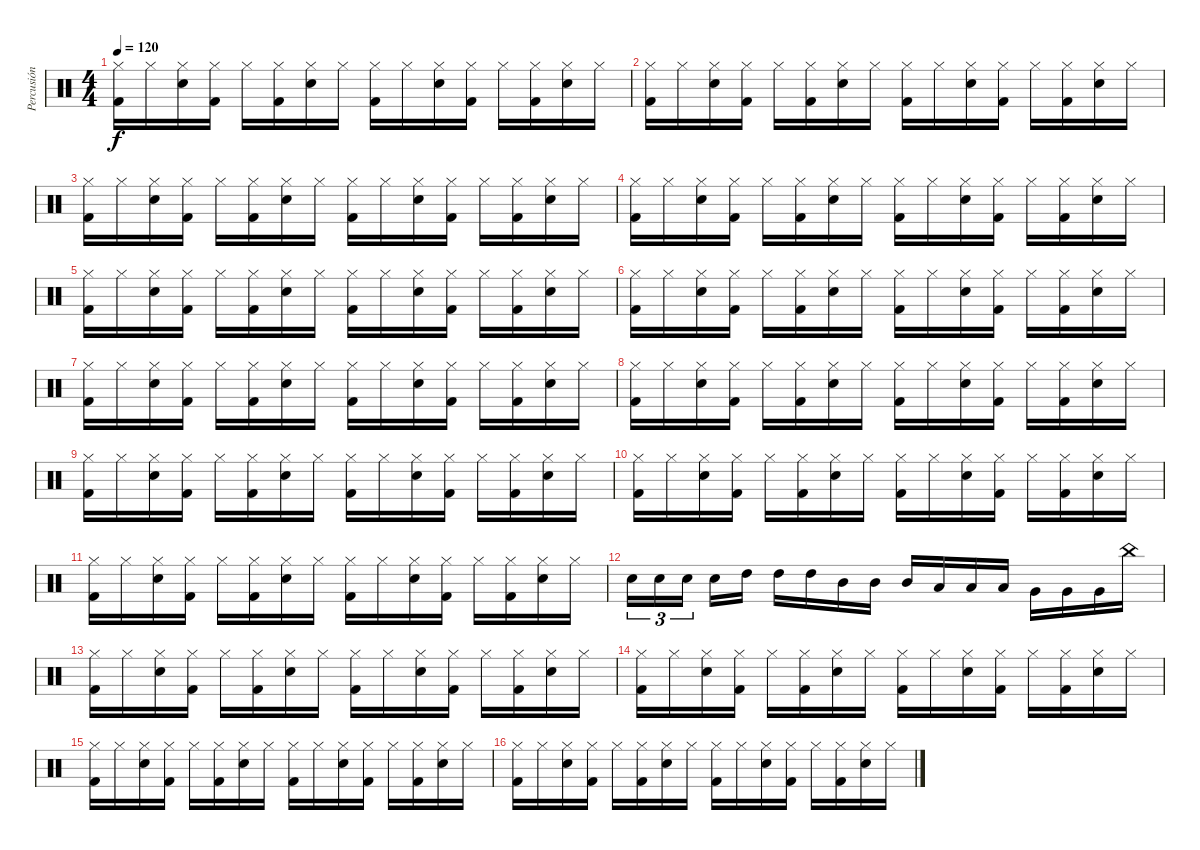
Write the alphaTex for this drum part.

\track ("Percusión" "Percusión") {instrument percussion}
\staff {score}
\articulation defaults
\ts (4 4)
\tempo 120
\clef neutral
\ks c
("Kick (hit) 2" "Hi-Hat (closed)").16{dy f} "Hi-Hat (closed)".16 ("Snare (hit) 2" "Hi-Hat (closed)").16 ("Kick (hit) 2" "Hi-Hat (closed)").16 "Hi-Hat (closed)".16 ("Kick (hit) 2" "Hi-Hat (closed)").16 ("Snare (hit) 2" "Hi-Hat (closed)").16 "Hi-Hat (closed)".16 ("Kick (hit) 2" "Hi-Hat (closed)").16 "Hi-Hat (closed)".16 ("Snare (hit) 2" "Hi-Hat (closed)").16 ("Kick (hit) 2" "Hi-Hat (closed)").16 "Hi-Hat (closed)".16 ("Kick (hit) 2" "Hi-Hat (closed)").16 ("Snare (hit) 2" "Hi-Hat (closed)").16 "Hi-Hat (closed)".16 |
("Kick (hit) 2" "Hi-Hat (closed)").16 "Hi-Hat (closed)".16 ("Snare (hit) 2" "Hi-Hat (closed)").16 ("Kick (hit) 2" "Hi-Hat (closed)").16 "Hi-Hat (closed)".16 ("Kick (hit) 2" "Hi-Hat (closed)").16 ("Snare (hit) 2" "Hi-Hat (closed)").16 "Hi-Hat (closed)".16 ("Kick (hit) 2" "Hi-Hat (closed)").16 "Hi-Hat (closed)".16 ("Snare (hit) 2" "Hi-Hat (closed)").16 ("Kick (hit) 2" "Hi-Hat (closed)").16 "Hi-Hat (closed)".16 ("Kick (hit) 2" "Hi-Hat (closed)").16 ("Snare (hit) 2" "Hi-Hat (closed)").16 "Hi-Hat (closed)".16 |
("Kick (hit) 2" "Hi-Hat (closed)").16 "Hi-Hat (closed)".16 ("Snare (hit) 2" "Hi-Hat (closed)").16 ("Kick (hit) 2" "Hi-Hat (closed)").16 "Hi-Hat (closed)".16 ("Kick (hit) 2" "Hi-Hat (closed)").16 ("Snare (hit) 2" "Hi-Hat (closed)").16 "Hi-Hat (closed)".16 ("Kick (hit) 2" "Hi-Hat (closed)").16 "Hi-Hat (closed)".16 ("Snare (hit) 2" "Hi-Hat (closed)").16 ("Kick (hit) 2" "Hi-Hat (closed)").16 "Hi-Hat (closed)".16 ("Kick (hit) 2" "Hi-Hat (closed)").16 ("Snare (hit) 2" "Hi-Hat (closed)").16 "Hi-Hat (closed)".16 |
("Kick (hit) 2" "Hi-Hat (closed)").16 "Hi-Hat (closed)".16 ("Snare (hit) 2" "Hi-Hat (closed)").16 ("Kick (hit) 2" "Hi-Hat (closed)").16 "Hi-Hat (closed)".16 ("Kick (hit) 2" "Hi-Hat (closed)").16 ("Snare (hit) 2" "Hi-Hat (closed)").16 "Hi-Hat (closed)".16 ("Kick (hit) 2" "Hi-Hat (closed)").16 "Hi-Hat (closed)".16 ("Snare (hit) 2" "Hi-Hat (closed)").16 ("Kick (hit) 2" "Hi-Hat (closed)").16 "Hi-Hat (closed)".16 ("Kick (hit) 2" "Hi-Hat (closed)").16 ("Snare (hit) 2" "Hi-Hat (closed)").16 "Hi-Hat (closed)".16 |
("Kick (hit) 2" "Hi-Hat (closed)").16 "Hi-Hat (closed)".16 ("Snare (hit) 2" "Hi-Hat (closed)").16 ("Kick (hit) 2" "Hi-Hat (closed)").16 "Hi-Hat (closed)".16 ("Kick (hit) 2" "Hi-Hat (closed)").16 ("Snare (hit) 2" "Hi-Hat (closed)").16 "Hi-Hat (closed)".16 ("Kick (hit) 2" "Hi-Hat (closed)").16 "Hi-Hat (closed)".16 ("Snare (hit) 2" "Hi-Hat (closed)").16 ("Kick (hit) 2" "Hi-Hat (closed)").16 "Hi-Hat (closed)".16 ("Kick (hit) 2" "Hi-Hat (closed)").16 ("Snare (hit) 2" "Hi-Hat (closed)").16 "Hi-Hat (closed)".16 |
("Kick (hit) 2" "Hi-Hat (closed)").16 "Hi-Hat (closed)".16 ("Snare (hit) 2" "Hi-Hat (closed)").16 ("Kick (hit) 2" "Hi-Hat (closed)").16 "Hi-Hat (closed)".16 ("Kick (hit) 2" "Hi-Hat (closed)").16 ("Snare (hit) 2" "Hi-Hat (closed)").16 "Hi-Hat (closed)".16 ("Kick (hit) 2" "Hi-Hat (closed)").16 "Hi-Hat (closed)".16 ("Snare (hit) 2" "Hi-Hat (closed)").16 ("Kick (hit) 2" "Hi-Hat (closed)").16 "Hi-Hat (closed)".16 ("Kick (hit) 2" "Hi-Hat (closed)").16 ("Snare (hit) 2" "Hi-Hat (closed)").16 "Hi-Hat (closed)".16 |
("Kick (hit) 2" "Hi-Hat (closed)").16 "Hi-Hat (closed)".16 ("Snare (hit) 2" "Hi-Hat (closed)").16 ("Kick (hit) 2" "Hi-Hat (closed)").16 "Hi-Hat (closed)".16 ("Kick (hit) 2" "Hi-Hat (closed)").16 ("Snare (hit) 2" "Hi-Hat (closed)").16 "Hi-Hat (closed)".16 ("Kick (hit) 2" "Hi-Hat (closed)").16 "Hi-Hat (closed)".16 ("Snare (hit) 2" "Hi-Hat (closed)").16 ("Kick (hit) 2" "Hi-Hat (closed)").16 "Hi-Hat (closed)".16 ("Kick (hit) 2" "Hi-Hat (closed)").16 ("Snare (hit) 2" "Hi-Hat (closed)").16 "Hi-Hat (closed)".16 |
("Kick (hit) 2" "Hi-Hat (closed)").16 "Hi-Hat (closed)".16 ("Snare (hit) 2" "Hi-Hat (closed)").16 ("Kick (hit) 2" "Hi-Hat (closed)").16 "Hi-Hat (closed)".16 ("Kick (hit) 2" "Hi-Hat (closed)").16 ("Snare (hit) 2" "Hi-Hat (closed)").16 "Hi-Hat (closed)".16 ("Kick (hit) 2" "Hi-Hat (closed)").16 "Hi-Hat (closed)".16 ("Snare (hit) 2" "Hi-Hat (closed)").16 ("Kick (hit) 2" "Hi-Hat (closed)").16 "Hi-Hat (closed)".16 ("Kick (hit) 2" "Hi-Hat (closed)").16 ("Snare (hit) 2" "Hi-Hat (closed)").16 "Hi-Hat (closed)".16 |
("Kick (hit) 2" "Hi-Hat (closed)").16 "Hi-Hat (closed)".16 ("Snare (hit) 2" "Hi-Hat (closed)").16 ("Kick (hit) 2" "Hi-Hat (closed)").16 "Hi-Hat (closed)".16 ("Kick (hit) 2" "Hi-Hat (closed)").16 ("Snare (hit) 2" "Hi-Hat (closed)").16 "Hi-Hat (closed)".16 ("Kick (hit) 2" "Hi-Hat (closed)").16 "Hi-Hat (closed)".16 ("Snare (hit) 2" "Hi-Hat (closed)").16 ("Kick (hit) 2" "Hi-Hat (closed)").16 "Hi-Hat (closed)".16 ("Kick (hit) 2" "Hi-Hat (closed)").16 ("Snare (hit) 2" "Hi-Hat (closed)").16 "Hi-Hat (closed)".16 |
("Kick (hit) 2" "Hi-Hat (closed)").16 "Hi-Hat (closed)".16 ("Snare (hit) 2" "Hi-Hat (closed)").16 ("Kick (hit) 2" "Hi-Hat (closed)").16 "Hi-Hat (closed)".16 ("Kick (hit) 2" "Hi-Hat (closed)").16 ("Snare (hit) 2" "Hi-Hat (closed)").16 "Hi-Hat (closed)".16 ("Kick (hit) 2" "Hi-Hat (closed)").16 "Hi-Hat (closed)".16 ("Snare (hit) 2" "Hi-Hat (closed)").16 ("Kick (hit) 2" "Hi-Hat (closed)").16 "Hi-Hat (closed)".16 ("Kick (hit) 2" "Hi-Hat (closed)").16 ("Snare (hit) 2" "Hi-Hat (closed)").16 "Hi-Hat (closed)".16 |
("Kick (hit) 2" "Hi-Hat (closed)").16 "Hi-Hat (closed)".16 ("Snare (hit) 2" "Hi-Hat (closed)").16 ("Kick (hit) 2" "Hi-Hat (closed)").16 "Hi-Hat (closed)".16 ("Kick (hit) 2" "Hi-Hat (closed)").16 ("Snare (hit) 2" "Hi-Hat (closed)").16 "Hi-Hat (closed)".16 ("Kick (hit) 2" "Hi-Hat (closed)").16 "Hi-Hat (closed)".16 ("Snare (hit) 2" "Hi-Hat (closed)").16 ("Kick (hit) 2" "Hi-Hat (closed)").16 "Hi-Hat (closed)".16 ("Kick (hit) 2" "Hi-Hat (closed)").16 ("Snare (hit) 2" "Hi-Hat (closed)").16 "Hi-Hat (closed)".16 |
"Electric Snare (hit)".16{tu (3 2)} "Electric Snare (hit)".16{tu (3 2)} "Electric Snare (hit)".16{tu (3 2) beam splitsecondary} "Electric Snare (hit)".16 "High Tom (hit)".16 "High Tom (hit)".16 "High Tom (hit)".16 "Mid Tom (hit)".16 "Mid Tom (hit)".16 "Mid Tom (hit)".16 "Low Tom (hit)".16 "Low Tom (hit)".16 "Low Tom (hit)".16 "Very Low Tom (hit)".16 "Very Low Tom (hit)".16 "Very Low Tom (hit)".16 "China (hit)".16 |
("Kick (hit) 2" "Hi-Hat (closed)").16 "Hi-Hat (closed)".16 ("Snare (hit) 2" "Hi-Hat (closed)").16 ("Kick (hit) 2" "Hi-Hat (closed)").16 "Hi-Hat (closed)".16 ("Kick (hit) 2" "Hi-Hat (closed)").16 ("Snare (hit) 2" "Hi-Hat (closed)").16 "Hi-Hat (closed)".16 ("Kick (hit) 2" "Hi-Hat (closed)").16 "Hi-Hat (closed)".16 ("Snare (hit) 2" "Hi-Hat (closed)").16 ("Kick (hit) 2" "Hi-Hat (closed)").16 "Hi-Hat (closed)".16 ("Kick (hit) 2" "Hi-Hat (closed)").16 ("Snare (hit) 2" "Hi-Hat (closed)").16 "Hi-Hat (closed)".16 |
("Kick (hit) 2" "Hi-Hat (closed)").16 "Hi-Hat (closed)".16 ("Snare (hit) 2" "Hi-Hat (closed)").16 ("Kick (hit) 2" "Hi-Hat (closed)").16 "Hi-Hat (closed)".16 ("Kick (hit) 2" "Hi-Hat (closed)").16 ("Snare (hit) 2" "Hi-Hat (closed)").16 "Hi-Hat (closed)".16 ("Kick (hit) 2" "Hi-Hat (closed)").16 "Hi-Hat (closed)".16 ("Snare (hit) 2" "Hi-Hat (closed)").16 ("Kick (hit) 2" "Hi-Hat (closed)").16 "Hi-Hat (closed)".16 ("Kick (hit) 2" "Hi-Hat (closed)").16 ("Snare (hit) 2" "Hi-Hat (closed)").16 "Hi-Hat (closed)".16 |
("Kick (hit) 2" "Hi-Hat (closed)").16 "Hi-Hat (closed)".16 ("Snare (hit) 2" "Hi-Hat (closed)").16 ("Kick (hit) 2" "Hi-Hat (closed)").16 "Hi-Hat (closed)".16 ("Kick (hit) 2" "Hi-Hat (closed)").16 ("Snare (hit) 2" "Hi-Hat (closed)").16 "Hi-Hat (closed)".16 ("Kick (hit) 2" "Hi-Hat (closed)").16 "Hi-Hat (closed)".16 ("Snare (hit) 2" "Hi-Hat (closed)").16 ("Kick (hit) 2" "Hi-Hat (closed)").16 "Hi-Hat (closed)".16 ("Kick (hit) 2" "Hi-Hat (closed)").16 ("Snare (hit) 2" "Hi-Hat (closed)").16 "Hi-Hat (closed)".16 |
("Kick (hit) 2" "Hi-Hat (closed)").16 "Hi-Hat (closed)".16 ("Snare (hit) 2" "Hi-Hat (closed)").16 ("Kick (hit) 2" "Hi-Hat (closed)").16 "Hi-Hat (closed)".16 ("Kick (hit) 2" "Hi-Hat (closed)").16 ("Snare (hit) 2" "Hi-Hat (closed)").16 "Hi-Hat (closed)".16 ("Kick (hit) 2" "Hi-Hat (closed)").16 "Hi-Hat (closed)".16 ("Snare (hit) 2" "Hi-Hat (closed)").16 ("Kick (hit) 2" "Hi-Hat (closed)").16 "Hi-Hat (closed)".16 ("Kick (hit) 2" "Hi-Hat (closed)").16 ("Snare (hit) 2" "Hi-Hat (closed)").16 "Hi-Hat (closed)".16
